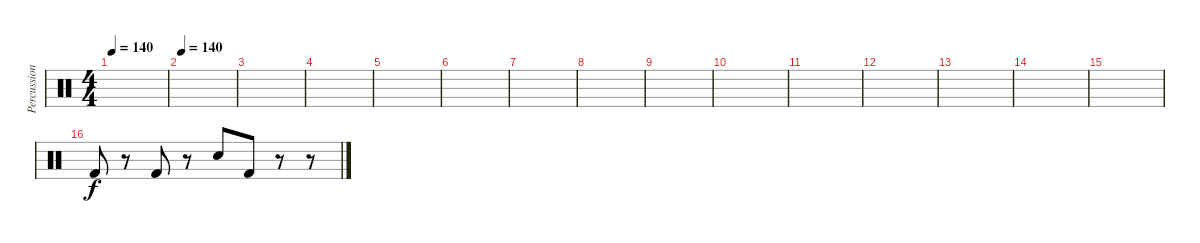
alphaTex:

\track ("Percussion" "Percussion") {instrument percussion}
\staff {score}
\articulation defaults
\ts (4 4)
\tempo 140
\clef neutral
\ks c
|
\tempo 140
|
|
|
|
|
|
|
|
|
|
|
|
|
|
"Kick (hit) 2".8 r.8 "Kick (hit) 2".8 r.8 "Electric Snare (hit)".8 "Kick (hit) 2".8 r.8 r.8
